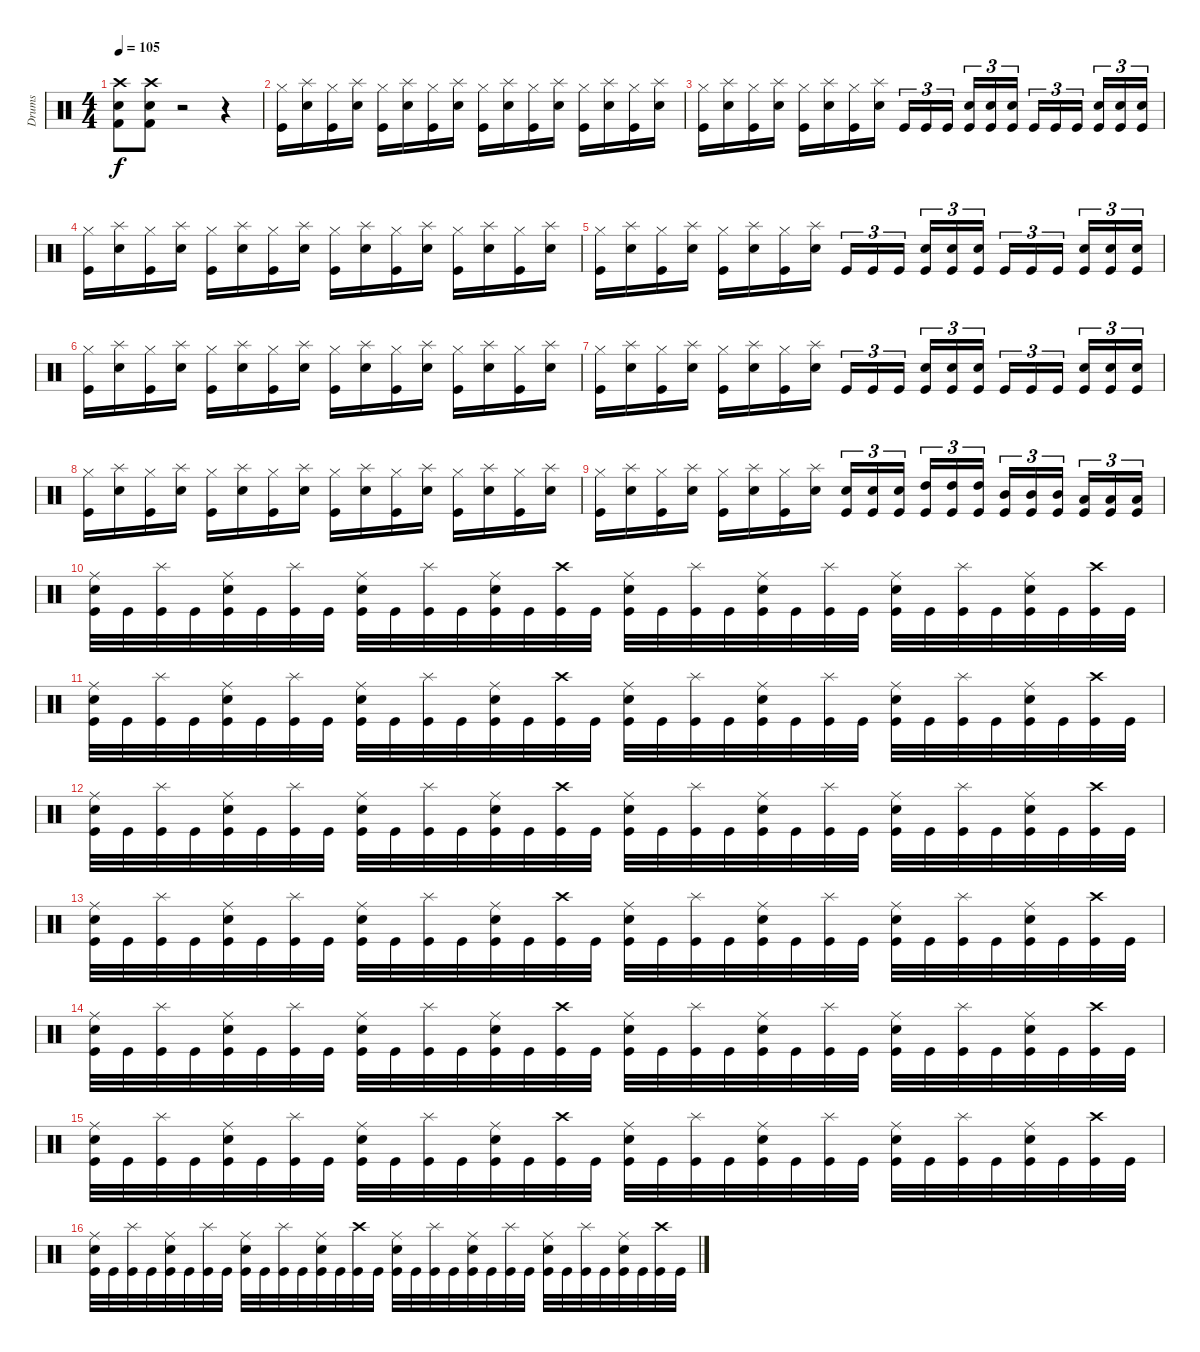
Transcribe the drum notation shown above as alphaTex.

\track ("Drums" "Drums") {instrument percussion}
\staff {score}
\articulation defaults
\ts (4 4)
\tempo 105
\clef neutral
\ks c
("Crash high (hit)" "Snare (hit) 2" "Kick (hit) 2").8{dy f} ("Crash high (hit)" "Snare (hit) 2" "Kick (hit) 2").8 r.2 r.4 |
("Hi-Hat (closed)" "Kick (hit)").16 ("Splash (hit)" "Snare (hit) 2").16 ("Hi-Hat (closed)" "Kick (hit)").16 ("Splash (hit)" "Snare (hit) 2").16 ("Hi-Hat (closed)" "Kick (hit)").16 ("Splash (hit)" "Snare (hit) 2").16 ("Hi-Hat (closed)" "Kick (hit)").16 ("Splash (hit)" "Snare (hit) 2").16 ("Hi-Hat (closed)" "Kick (hit)").16 ("Splash (hit)" "Snare (hit) 2").16 ("Hi-Hat (closed)" "Kick (hit)").16 ("Splash (hit)" "Snare (hit) 2").16 ("Hi-Hat (closed)" "Kick (hit)").16 ("Splash (hit)" "Snare (hit) 2").16 ("Hi-Hat (closed)" "Kick (hit)").16 ("Splash (hit)" "Snare (hit) 2").16 |
("Hi-Hat (closed)" "Kick (hit)").16 ("Splash (hit)" "Snare (hit) 2").16 ("Hi-Hat (closed)" "Kick (hit)").16 ("Splash (hit)" "Snare (hit) 2").16 ("Hi-Hat (closed)" "Kick (hit)").16 ("Splash (hit)" "Snare (hit) 2").16 ("Hi-Hat (closed)" "Kick (hit)").16 ("Splash (hit)" "Snare (hit) 2").16 "Kick (hit)".16{tu (3 2)} "Kick (hit)".16{tu (3 2)} "Kick (hit)".16{tu (3 2)} ("Snare (hit) 2" "Kick (hit)").16{tu (3 2)} ("Snare (hit) 2" "Kick (hit)").16{tu (3 2)} ("Snare (hit) 2" "Kick (hit)").16{tu (3 2)} "Kick (hit)".16{tu (3 2)} "Kick (hit)".16{tu (3 2)} "Kick (hit)".16{tu (3 2)} ("Snare (hit) 2" "Kick (hit)").16{tu (3 2)} ("Snare (hit) 2" "Kick (hit)").16{tu (3 2)} ("Snare (hit) 2" "Kick (hit)").16{tu (3 2)} |
("Hi-Hat (closed)" "Kick (hit)").16 ("Splash (hit)" "Snare (hit) 2").16 ("Hi-Hat (closed)" "Kick (hit)").16 ("Splash (hit)" "Snare (hit) 2").16 ("Hi-Hat (closed)" "Kick (hit)").16 ("Splash (hit)" "Snare (hit) 2").16 ("Hi-Hat (closed)" "Kick (hit)").16 ("Splash (hit)" "Snare (hit) 2").16 ("Hi-Hat (closed)" "Kick (hit)").16 ("Splash (hit)" "Snare (hit) 2").16 ("Hi-Hat (closed)" "Kick (hit)").16 ("Splash (hit)" "Snare (hit) 2").16 ("Hi-Hat (closed)" "Kick (hit)").16 ("Splash (hit)" "Snare (hit) 2").16 ("Hi-Hat (closed)" "Kick (hit)").16 ("Splash (hit)" "Snare (hit) 2").16 |
("Hi-Hat (closed)" "Kick (hit)").16 ("Splash (hit)" "Snare (hit) 2").16 ("Hi-Hat (closed)" "Kick (hit)").16 ("Splash (hit)" "Snare (hit) 2").16 ("Hi-Hat (closed)" "Kick (hit)").16 ("Splash (hit)" "Snare (hit) 2").16 ("Hi-Hat (closed)" "Kick (hit)").16 ("Splash (hit)" "Snare (hit) 2").16 "Kick (hit)".16{tu (3 2)} "Kick (hit)".16{tu (3 2)} "Kick (hit)".16{tu (3 2)} ("Snare (hit) 2" "Kick (hit)").16{tu (3 2)} ("Snare (hit) 2" "Kick (hit)").16{tu (3 2)} ("Snare (hit) 2" "Kick (hit)").16{tu (3 2)} "Kick (hit)".16{tu (3 2)} "Kick (hit)".16{tu (3 2)} "Kick (hit)".16{tu (3 2)} ("Snare (hit) 2" "Kick (hit)").16{tu (3 2)} ("Snare (hit) 2" "Kick (hit)").16{tu (3 2)} ("Snare (hit) 2" "Kick (hit)").16{tu (3 2)} |
("Hi-Hat (closed)" "Kick (hit)").16 ("Splash (hit)" "Snare (hit) 2").16 ("Hi-Hat (closed)" "Kick (hit)").16 ("Splash (hit)" "Snare (hit) 2").16 ("Hi-Hat (closed)" "Kick (hit)").16 ("Splash (hit)" "Snare (hit) 2").16 ("Hi-Hat (closed)" "Kick (hit)").16 ("Splash (hit)" "Snare (hit) 2").16 ("Hi-Hat (closed)" "Kick (hit)").16 ("Splash (hit)" "Snare (hit) 2").16 ("Hi-Hat (closed)" "Kick (hit)").16 ("Splash (hit)" "Snare (hit) 2").16 ("Hi-Hat (closed)" "Kick (hit)").16 ("Splash (hit)" "Snare (hit) 2").16 ("Hi-Hat (closed)" "Kick (hit)").16 ("Splash (hit)" "Snare (hit) 2").16 |
("Hi-Hat (closed)" "Kick (hit)").16 ("Splash (hit)" "Snare (hit) 2").16 ("Hi-Hat (closed)" "Kick (hit)").16 ("Splash (hit)" "Snare (hit) 2").16 ("Hi-Hat (closed)" "Kick (hit)").16 ("Splash (hit)" "Snare (hit) 2").16 ("Hi-Hat (closed)" "Kick (hit)").16 ("Splash (hit)" "Snare (hit) 2").16 "Kick (hit)".16{tu (3 2)} "Kick (hit)".16{tu (3 2)} "Kick (hit)".16{tu (3 2)} ("Snare (hit) 2" "Kick (hit)").16{tu (3 2)} ("Snare (hit) 2" "Kick (hit)").16{tu (3 2)} ("Snare (hit) 2" "Kick (hit)").16{tu (3 2)} "Kick (hit)".16{tu (3 2)} "Kick (hit)".16{tu (3 2)} "Kick (hit)".16{tu (3 2)} ("Snare (hit) 2" "Kick (hit)").16{tu (3 2)} ("Snare (hit) 2" "Kick (hit)").16{tu (3 2)} ("Snare (hit) 2" "Kick (hit)").16{tu (3 2)} |
("Hi-Hat (closed)" "Kick (hit)").16 ("Splash (hit)" "Snare (hit) 2").16 ("Hi-Hat (closed)" "Kick (hit)").16 ("Splash (hit)" "Snare (hit) 2").16 ("Hi-Hat (closed)" "Kick (hit)").16 ("Splash (hit)" "Snare (hit) 2").16 ("Hi-Hat (closed)" "Kick (hit)").16 ("Splash (hit)" "Snare (hit) 2").16 ("Hi-Hat (closed)" "Kick (hit)").16 ("Splash (hit)" "Snare (hit) 2").16 ("Hi-Hat (closed)" "Kick (hit)").16 ("Splash (hit)" "Snare (hit) 2").16 ("Hi-Hat (closed)" "Kick (hit)").16 ("Splash (hit)" "Snare (hit) 2").16 ("Hi-Hat (closed)" "Kick (hit)").16 ("Splash (hit)" "Snare (hit) 2").16 |
("Hi-Hat (closed)" "Kick (hit)").16 ("Splash (hit)" "Snare (hit) 2").16 ("Hi-Hat (closed)" "Kick (hit)").16 ("Splash (hit)" "Snare (hit) 2").16 ("Hi-Hat (closed)" "Kick (hit)").16 ("Splash (hit)" "Snare (hit) 2").16 ("Hi-Hat (closed)" "Kick (hit)").16 ("Splash (hit)" "Snare (hit) 2").16 ("Snare (hit) 2" "Kick (hit)").16{tu (3 2)} ("Snare (hit) 2" "Kick (hit)").16{tu (3 2)} ("Snare (hit) 2" "Kick (hit)").16{tu (3 2)} ("High Tom (hit)" "Kick (hit)").16{tu (3 2)} ("High Tom (hit)" "Kick (hit)").16{tu (3 2)} ("High Tom (hit)" "Kick (hit)").16{tu (3 2)} ("Mid Tom (hit)" "Kick (hit)").16{tu (3 2)} ("Mid Tom (hit)" "Kick (hit)").16{tu (3 2)} ("Mid Tom (hit)" "Kick (hit)").16{tu (3 2)} ("Low Tom (hit)" "Kick (hit)").16{tu (3 2)} ("Low Tom (hit)" "Kick (hit)").16{tu (3 2)} ("Low Tom (hit)" "Kick (hit)").16{tu (3 2)} |
("Ride (middle)" "Snare (hit) 2" "Kick (hit)").32 "Kick (hit)".32 ("Splash (hit)" "Kick (hit)").32 "Kick (hit)".32 ("Ride (middle)" "Snare (hit) 2" "Kick (hit)").32 "Kick (hit)".32 ("Splash (hit)" "Kick (hit)").32 "Kick (hit)".32 ("Ride (middle)" "Snare (hit) 2" "Kick (hit)").32 "Kick (hit)".32 ("Splash (hit)" "Kick (hit)").32 "Kick (hit)".32 ("Ride (middle)" "Snare (hit) 2" "Kick (hit)").32 "Kick (hit)".32 ("Crash high (hit)" "Kick (hit)").32 "Kick (hit)".32 ("Ride (middle)" "Snare (hit) 2" "Kick (hit)").32 "Kick (hit)".32 ("Splash (hit)" "Kick (hit)").32 "Kick (hit)".32 ("Ride (middle)" "Snare (hit) 2" "Kick (hit)").32 "Kick (hit)".32 ("Splash (hit)" "Kick (hit)").32 "Kick (hit)".32 ("Ride (middle)" "Snare (hit) 2" "Kick (hit)").32 "Kick (hit)".32 ("Splash (hit)" "Kick (hit)").32 "Kick (hit)".32 ("Ride (middle)" "Snare (hit) 2" "Kick (hit)").32 "Kick (hit)".32 ("Crash high (hit)" "Kick (hit)").32 "Kick (hit)".32 |
("Ride (middle)" "Snare (hit) 2" "Kick (hit)").32 "Kick (hit)".32 ("Splash (hit)" "Kick (hit)").32 "Kick (hit)".32 ("Ride (middle)" "Snare (hit) 2" "Kick (hit)").32 "Kick (hit)".32 ("Splash (hit)" "Kick (hit)").32 "Kick (hit)".32 ("Ride (middle)" "Snare (hit) 2" "Kick (hit)").32 "Kick (hit)".32 ("Splash (hit)" "Kick (hit)").32 "Kick (hit)".32 ("Ride (middle)" "Snare (hit) 2" "Kick (hit)").32 "Kick (hit)".32 ("Crash high (hit)" "Kick (hit)").32 "Kick (hit)".32 ("Ride (middle)" "Snare (hit) 2" "Kick (hit)").32 "Kick (hit)".32 ("Splash (hit)" "Kick (hit)").32 "Kick (hit)".32 ("Ride (middle)" "Snare (hit) 2" "Kick (hit)").32 "Kick (hit)".32 ("Splash (hit)" "Kick (hit)").32 "Kick (hit)".32 ("Ride (middle)" "Snare (hit) 2" "Kick (hit)").32 "Kick (hit)".32 ("Splash (hit)" "Kick (hit)").32 "Kick (hit)".32 ("Ride (middle)" "Snare (hit) 2" "Kick (hit)").32 "Kick (hit)".32 ("Crash high (hit)" "Kick (hit)").32 "Kick (hit)".32 |
("Ride (middle)" "Snare (hit) 2" "Kick (hit)").32 "Kick (hit)".32 ("Splash (hit)" "Kick (hit)").32 "Kick (hit)".32 ("Ride (middle)" "Snare (hit) 2" "Kick (hit)").32 "Kick (hit)".32 ("Splash (hit)" "Kick (hit)").32 "Kick (hit)".32 ("Ride (middle)" "Snare (hit) 2" "Kick (hit)").32 "Kick (hit)".32 ("Splash (hit)" "Kick (hit)").32 "Kick (hit)".32 ("Ride (middle)" "Snare (hit) 2" "Kick (hit)").32 "Kick (hit)".32 ("Crash high (hit)" "Kick (hit)").32 "Kick (hit)".32 ("Ride (middle)" "Snare (hit) 2" "Kick (hit)").32 "Kick (hit)".32 ("Splash (hit)" "Kick (hit)").32 "Kick (hit)".32 ("Ride (middle)" "Snare (hit) 2" "Kick (hit)").32 "Kick (hit)".32 ("Splash (hit)" "Kick (hit)").32 "Kick (hit)".32 ("Ride (middle)" "Snare (hit) 2" "Kick (hit)").32 "Kick (hit)".32 ("Splash (hit)" "Kick (hit)").32 "Kick (hit)".32 ("Ride (middle)" "Snare (hit) 2" "Kick (hit)").32 "Kick (hit)".32 ("Crash high (hit)" "Kick (hit)").32 "Kick (hit)".32 |
("Ride (middle)" "Snare (hit) 2" "Kick (hit)").32 "Kick (hit)".32 ("Splash (hit)" "Kick (hit)").32 "Kick (hit)".32 ("Ride (middle)" "Snare (hit) 2" "Kick (hit)").32 "Kick (hit)".32 ("Splash (hit)" "Kick (hit)").32 "Kick (hit)".32 ("Ride (middle)" "Snare (hit) 2" "Kick (hit)").32 "Kick (hit)".32 ("Splash (hit)" "Kick (hit)").32 "Kick (hit)".32 ("Ride (middle)" "Snare (hit) 2" "Kick (hit)").32 "Kick (hit)".32 ("Crash high (hit)" "Kick (hit)").32 "Kick (hit)".32 ("Ride (middle)" "Snare (hit) 2" "Kick (hit)").32 "Kick (hit)".32 ("Splash (hit)" "Kick (hit)").32 "Kick (hit)".32 ("Ride (middle)" "Snare (hit) 2" "Kick (hit)").32 "Kick (hit)".32 ("Splash (hit)" "Kick (hit)").32 "Kick (hit)".32 ("Ride (middle)" "Snare (hit) 2" "Kick (hit)").32 "Kick (hit)".32 ("Splash (hit)" "Kick (hit)").32 "Kick (hit)".32 ("Ride (middle)" "Snare (hit) 2" "Kick (hit)").32 "Kick (hit)".32 ("Crash high (hit)" "Kick (hit)").32 "Kick (hit)".32 |
("Ride (middle)" "Snare (hit) 2" "Kick (hit)").32 "Kick (hit)".32 ("Splash (hit)" "Kick (hit)").32 "Kick (hit)".32 ("Ride (middle)" "Snare (hit) 2" "Kick (hit)").32 "Kick (hit)".32 ("Splash (hit)" "Kick (hit)").32 "Kick (hit)".32 ("Ride (middle)" "Snare (hit) 2" "Kick (hit)").32 "Kick (hit)".32 ("Splash (hit)" "Kick (hit)").32 "Kick (hit)".32 ("Ride (middle)" "Snare (hit) 2" "Kick (hit)").32 "Kick (hit)".32 ("Crash high (hit)" "Kick (hit)").32 "Kick (hit)".32 ("Ride (middle)" "Snare (hit) 2" "Kick (hit)").32 "Kick (hit)".32 ("Splash (hit)" "Kick (hit)").32 "Kick (hit)".32 ("Ride (middle)" "Snare (hit) 2" "Kick (hit)").32 "Kick (hit)".32 ("Splash (hit)" "Kick (hit)").32 "Kick (hit)".32 ("Ride (middle)" "Snare (hit) 2" "Kick (hit)").32 "Kick (hit)".32 ("Splash (hit)" "Kick (hit)").32 "Kick (hit)".32 ("Ride (middle)" "Snare (hit) 2" "Kick (hit)").32 "Kick (hit)".32 ("Crash high (hit)" "Kick (hit)").32 "Kick (hit)".32 |
("Ride (middle)" "Snare (hit) 2" "Kick (hit)").32 "Kick (hit)".32 ("Splash (hit)" "Kick (hit)").32 "Kick (hit)".32 ("Ride (middle)" "Snare (hit) 2" "Kick (hit)").32 "Kick (hit)".32 ("Splash (hit)" "Kick (hit)").32 "Kick (hit)".32 ("Ride (middle)" "Snare (hit) 2" "Kick (hit)").32 "Kick (hit)".32 ("Splash (hit)" "Kick (hit)").32 "Kick (hit)".32 ("Ride (middle)" "Snare (hit) 2" "Kick (hit)").32 "Kick (hit)".32 ("Crash high (hit)" "Kick (hit)").32 "Kick (hit)".32 ("Ride (middle)" "Snare (hit) 2" "Kick (hit)").32 "Kick (hit)".32 ("Splash (hit)" "Kick (hit)").32 "Kick (hit)".32 ("Ride (middle)" "Snare (hit) 2" "Kick (hit)").32 "Kick (hit)".32 ("Splash (hit)" "Kick (hit)").32 "Kick (hit)".32 ("Ride (middle)" "Snare (hit) 2" "Kick (hit)").32 "Kick (hit)".32 ("Splash (hit)" "Kick (hit)").32 "Kick (hit)".32 ("Ride (middle)" "Snare (hit) 2" "Kick (hit)").32 "Kick (hit)".32 ("Crash high (hit)" "Kick (hit)").32 "Kick (hit)".32 |
("Ride (middle)" "Snare (hit) 2" "Kick (hit)").32 "Kick (hit)".32 ("Splash (hit)" "Kick (hit)").32 "Kick (hit)".32 ("Ride (middle)" "Snare (hit) 2" "Kick (hit)").32 "Kick (hit)".32 ("Splash (hit)" "Kick (hit)").32 "Kick (hit)".32 ("Ride (middle)" "Snare (hit) 2" "Kick (hit)").32 "Kick (hit)".32 ("Splash (hit)" "Kick (hit)").32 "Kick (hit)".32 ("Ride (middle)" "Snare (hit) 2" "Kick (hit)").32 "Kick (hit)".32 ("Crash high (hit)" "Kick (hit)").32 "Kick (hit)".32 ("Ride (middle)" "Snare (hit) 2" "Kick (hit)").32 "Kick (hit)".32 ("Splash (hit)" "Kick (hit)").32 "Kick (hit)".32 ("Ride (middle)" "Snare (hit) 2" "Kick (hit)").32 "Kick (hit)".32 ("Splash (hit)" "Kick (hit)").32 "Kick (hit)".32 ("Ride (middle)" "Snare (hit) 2" "Kick (hit)").32 "Kick (hit)".32 ("Splash (hit)" "Kick (hit)").32 "Kick (hit)".32 ("Ride (middle)" "Snare (hit) 2" "Kick (hit)").32 "Kick (hit)".32 ("Crash high (hit)" "Kick (hit)").32 "Kick (hit)".32
